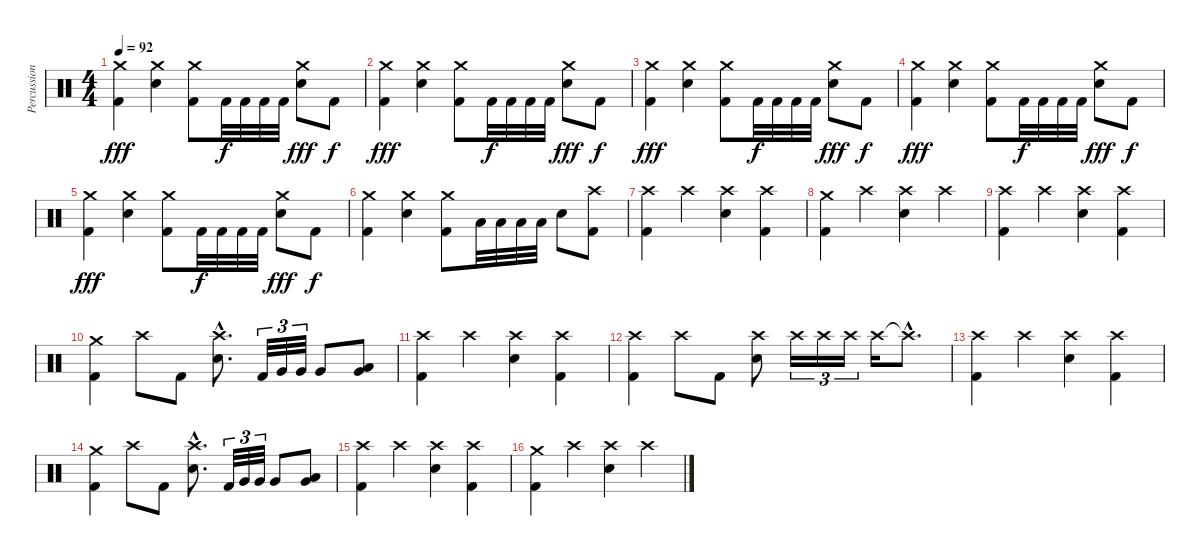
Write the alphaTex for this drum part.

\track ("Percussion" "Percussion") {instrument percussion}
\staff {score}
\articulation defaults
\ts (4 4)
\tempo 92
\clef neutral
\ks c
("Crash medium (hit)" "Kick (hit) 2").4{dy fff} ("Crash medium (hit)" "Electric Snare (hit)").4 ("Crash medium (hit)" "Kick (hit) 2").8 "Kick (hit) 2".32{dy f} "Kick (hit) 2".32 "Kick (hit) 2".32 "Kick (hit) 2".32 ("Crash medium (hit)" "Electric Snare (hit)").8{dy fff} "Kick (hit) 2".8{dy f} |
("Crash medium (hit)" "Kick (hit) 2").4{dy fff} ("Crash medium (hit)" "Electric Snare (hit)").4 ("Crash medium (hit)" "Kick (hit) 2").8 "Kick (hit) 2".32{dy f} "Kick (hit) 2".32 "Kick (hit) 2".32 "Kick (hit) 2".32 ("Crash medium (hit)" "Electric Snare (hit)").8{dy fff} "Kick (hit) 2".8{dy f} |
("Crash medium (hit)" "Kick (hit) 2").4{dy fff} ("Crash medium (hit)" "Electric Snare (hit)").4 ("Crash medium (hit)" "Kick (hit) 2").8 "Kick (hit) 2".32{dy f} "Kick (hit) 2".32 "Kick (hit) 2".32 "Kick (hit) 2".32 ("Crash medium (hit)" "Electric Snare (hit)").8{dy fff} "Kick (hit) 2".8{dy f} |
("Crash medium (hit)" "Kick (hit) 2").4{dy fff} ("Crash medium (hit)" "Electric Snare (hit)").4 ("Crash medium (hit)" "Kick (hit) 2").8 "Kick (hit) 2".32{dy f} "Kick (hit) 2".32 "Kick (hit) 2".32 "Kick (hit) 2".32 ("Crash medium (hit)" "Electric Snare (hit)").8{dy fff} "Kick (hit) 2".8{dy f} |
("Crash medium (hit)" "Kick (hit) 2").4{dy fff} ("Crash medium (hit)" "Electric Snare (hit)").4 ("Crash medium (hit)" "Kick (hit) 2").8 "Kick (hit) 2".32{dy f} "Kick (hit) 2".32 "Kick (hit) 2".32 "Kick (hit) 2".32 ("Crash medium (hit)" "Electric Snare (hit)").8{dy fff} "Kick (hit) 2".8{dy f} |
("Crash medium (hit)" "Kick (hit) 2").4 ("Crash medium (hit)" "Electric Snare (hit)").4 ("Crash medium (hit)" "Kick (hit) 2").8 "Low Floor Tom (hit)".32 "Low Floor Tom (hit)".32 "Low Floor Tom (hit)".32 "Low Floor Tom (hit)".32 "Electric Snare (hit)".8 ("Crash high (hit)" "Kick (hit) 2").8 |
("Crash high (hit)" "Kick (hit) 2").4 "Crash high (hit)".4 ("Crash high (hit)" "Electric Snare (hit)").4 ("Crash high (hit)" "Kick (hit) 2").4 |
("Crash medium (hit)" "Kick (hit) 2").4 "Crash high (hit)".4 ("Crash high (hit)" "Electric Snare (hit)").4 "Crash high (hit)".4 |
("Crash high (hit)" "Kick (hit) 2").4 "Crash high (hit)".4 ("Crash high (hit)" "Electric Snare (hit)").4 ("Crash high (hit)" "Kick (hit) 2").4 |
("Crash medium (hit)" "Kick (hit) 2").4 "Crash high (hit)".8 "Kick (hit) 2".8 ("Crash high (hit)"{hac} "Electric Snare (hit)"{hac}).8{d} "Kick (hit) 2".32{tu (3 2)} "Very Low Tom (hit)".32{tu (3 2)} "Very Low Tom (hit)".32{tu (3 2)} "Very Low Tom (hit)".8 ("Low Tom (hit)" "Very Low Tom (hit)").8 |
("Crash high (hit)" "Kick (hit) 2").4 "Crash high (hit)".4 ("Crash high (hit)" "Electric Snare (hit)").4 ("Kick (hit) 2" "Crash high (hit)").4 |
("Crash high (hit)" "Kick (hit) 2").4 "Crash high (hit)".8 "Kick (hit) 2".8 ("Crash high (hit)" "Electric Snare (hit)").8 "Crash high (hit)".16{tu (3 2)} "Crash high (hit)".16{tu (3 2)} "Crash high (hit)".16{tu (3 2)} "Crash high (hit)".16 "Crash high (hit)"{hac t}.8{d} |
("Crash high (hit)" "Kick (hit) 2").4 "Crash high (hit)".4 ("Crash high (hit)" "Electric Snare (hit)").4 ("Crash high (hit)" "Kick (hit) 2").4 |
("Crash medium (hit)" "Kick (hit) 2").4 "Crash high (hit)".8 "Kick (hit) 2".8 ("Crash high (hit)"{hac} "Electric Snare (hit)"{hac}).8{d} "Kick (hit) 2".32{tu (3 2)} "Very Low Tom (hit)".32{tu (3 2)} "Very Low Tom (hit)".32{tu (3 2)} "Very Low Tom (hit)".8 ("Low Tom (hit)" "Very Low Tom (hit)").8 |
("Crash high (hit)" "Kick (hit) 2").4 "Crash high (hit)".4 ("Crash high (hit)" "Electric Snare (hit)").4 ("Crash high (hit)" "Kick (hit) 2").4 |
("Crash medium (hit)" "Kick (hit) 2").4 "Crash high (hit)".4 ("Crash high (hit)" "Electric Snare (hit)").4 "Crash high (hit)".4
